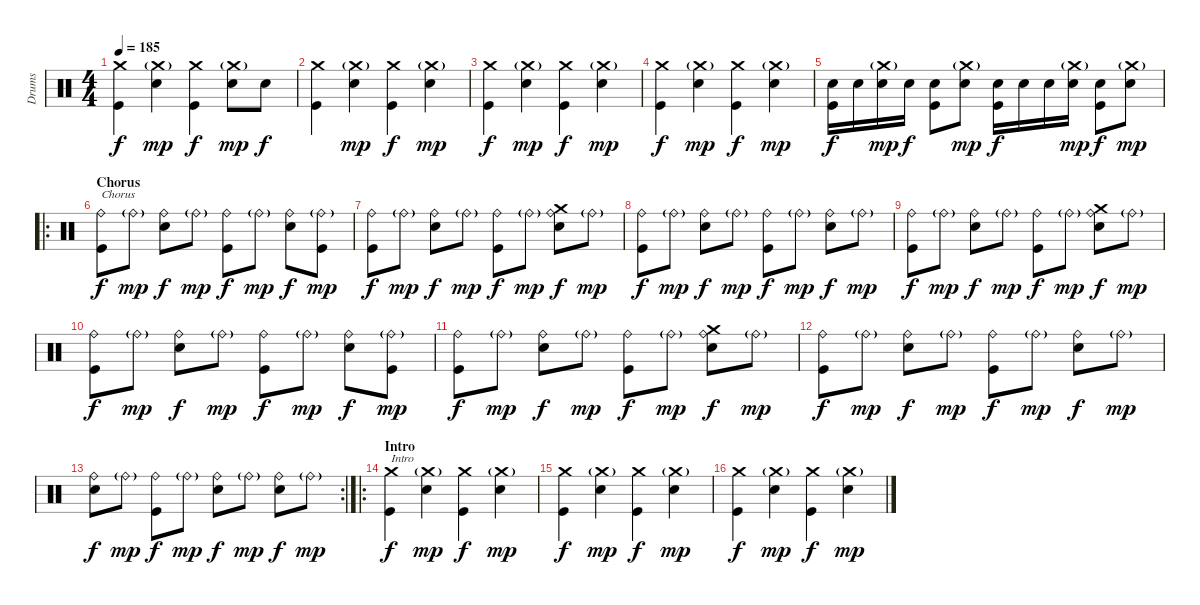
\track ("Drums" "Drums") {instrument percussion}
\staff {score}
\articulation defaults
\ts (4 4)
\tempo 185
\clef neutral
\ks c
("Crash medium (hit)" "Kick (hit)").4{dy f} ("Crash medium (hit)"{g} "Snare (hit) 2").4{dy mp} ("Crash medium (hit)" "Kick (hit)").4{dy f} ("Crash medium (hit)"{g} "Electric Snare (hit)").8{dy mp} "Snare (hit) 2".8{dy f} |
("Crash medium (hit)" "Kick (hit)").4 ("Crash medium (hit)"{g} "Snare (hit) 2").4{dy mp} ("Crash medium (hit)" "Kick (hit)").4{dy f} ("Crash medium (hit)"{g} "Snare (hit) 2").4{dy mp} |
("Crash medium (hit)" "Kick (hit)").4{dy f} ("Crash medium (hit)"{g} "Snare (hit) 2").4{dy mp} ("Crash medium (hit)" "Kick (hit)").4{dy f} ("Crash medium (hit)"{g} "Snare (hit) 2").4{dy mp} |
("Crash medium (hit)" "Kick (hit)").4{dy f} ("Crash medium (hit)"{g} "Snare (hit) 2").4{dy mp} ("Crash medium (hit)" "Kick (hit)").4{dy f} ("Crash medium (hit)"{g} "Snare (hit) 2").4{dy mp} |
("Snare (hit) 2" "Kick (hit)").16{dy f} "Snare (hit) 2".16 ("Crash medium (hit)"{g} "Snare (hit) 2").16{dy mp} "Snare (hit) 2".16{dy f} ("Snare (hit) 2" "Kick (hit)").8 ("Crash medium (hit)"{g} "Snare (hit) 2").8{dy mp} ("Snare (hit) 2" "Kick (hit)").16{dy f} "Snare (hit) 2".16 "Snare (hit) 2".16 ("Crash medium (hit)"{g} "Snare (hit) 2").16{dy mp} ("Snare (hit) 2" "Kick (hit)").8{dy f} ("Crash medium (hit)"{g} "Snare (hit) 2").8{dy mp} |
\ro
\section ("" "Chorus")
("Ride (bell)" "Kick (hit)").8{txt "Chorus" dy f} "Ride (bell)"{g}.8{dy mp} ("Ride (bell)" "Snare (hit) 2").8{dy f} "Ride (bell)"{g}.8{dy mp} ("Ride (bell)" "Kick (hit)").8{dy f} "Ride (bell)"{g}.8{dy mp} ("Ride (bell)" "Snare (hit) 2").8{dy f} ("Ride (bell)"{g} "Kick (hit)").8{dy mp} |
("Ride (bell)" "Kick (hit)").8{dy f} "Ride (bell)"{g}.8{dy mp} ("Ride (bell)" "Snare (hit) 2").8{dy f} "Ride (bell)"{g}.8{dy mp} ("Ride (bell)" "Kick (hit)").8{dy f} "Ride (bell)"{g}.8{dy mp} ("Crash medium (hit)" "Ride (bell)" "Snare (hit) 2").8{dy f} "Ride (bell)"{g}.8{dy mp} |
("Ride (bell)" "Kick (hit)").8{dy f} "Ride (bell)"{g}.8{dy mp} ("Ride (bell)" "Snare (hit) 2").8{dy f} "Ride (bell)"{g}.8{dy mp} ("Ride (bell)" "Kick (hit)").8{dy f} "Ride (bell)"{g}.8{dy mp} ("Ride (bell)" "Snare (hit) 2").8{dy f} "Ride (bell)"{g}.8{dy mp} |
("Ride (bell)" "Kick (hit)").8{dy f} "Ride (bell)"{g}.8{dy mp} ("Ride (bell)" "Snare (hit) 2").8{dy f} "Ride (bell)"{g}.8{dy mp} ("Ride (bell)" "Kick (hit)").8{dy f} "Ride (bell)"{g}.8{dy mp} ("Crash medium (hit)" "Ride (bell)" "Snare (hit) 2").8{dy f} "Ride (bell)"{g}.8{dy mp} |
("Ride (bell)" "Kick (hit)").8{dy f} "Ride (bell)"{g}.8{dy mp} ("Ride (bell)" "Snare (hit) 2").8{dy f} "Ride (bell)"{g}.8{dy mp} ("Ride (bell)" "Kick (hit)").8{dy f} "Ride (bell)"{g}.8{dy mp} ("Ride (bell)" "Snare (hit) 2").8{dy f} ("Ride (bell)"{g} "Kick (hit)").8{dy mp} |
("Ride (bell)" "Kick (hit)").8{dy f} "Ride (bell)"{g}.8{dy mp} ("Ride (bell)" "Snare (hit) 2").8{dy f} "Ride (bell)"{g}.8{dy mp} ("Ride (bell)" "Kick (hit)").8{dy f} "Ride (bell)"{g}.8{dy mp} ("Crash medium (hit)" "Ride (bell)" "Snare (hit) 2").8{dy f} "Ride (bell)"{g}.8{dy mp} |
("Ride (bell)" "Kick (hit)").8{dy f} "Ride (bell)"{g}.8{dy mp} ("Ride (bell)" "Snare (hit) 2").8{dy f} "Ride (bell)"{g}.8{dy mp} ("Ride (bell)" "Kick (hit)").8{dy f} "Ride (bell)"{g}.8{dy mp} ("Ride (bell)" "Snare (hit) 2").8{dy f} "Ride (bell)"{g}.8{dy mp} |
\rc 2
("Ride (bell)" "Snare (hit) 2").8{dy f} "Ride (bell)"{g}.8{dy mp} ("Ride (bell)" "Kick (hit)").8{dy f} "Ride (bell)"{g}.8{dy mp} ("Ride (bell)" "Snare (hit) 2").8{dy f} "Ride (bell)"{g}.8{dy mp} ("Ride (bell)" "Snare (hit) 2").8{dy f} "Ride (bell)"{g}.8{dy mp} |
\ro
\section ("" "Intro")
("Crash medium (hit)" "Kick (hit)").4{txt "Intro" dy f} ("Crash medium (hit)"{g} "Snare (hit) 2").4{dy mp} ("Crash medium (hit)" "Kick (hit)").4{dy f} ("Crash medium (hit)"{g} "Snare (hit) 2").4{dy mp} |
("Crash medium (hit)" "Kick (hit)").4{dy f} ("Crash medium (hit)"{g} "Snare (hit) 2").4{dy mp} ("Crash medium (hit)" "Kick (hit)").4{dy f} ("Crash medium (hit)"{g} "Snare (hit) 2").4{dy mp} |
("Crash medium (hit)" "Kick (hit)").4{dy f} ("Crash medium (hit)"{g} "Snare (hit) 2").4{dy mp} ("Crash medium (hit)" "Kick (hit)").4{dy f} ("Crash medium (hit)"{g} "Snare (hit) 2").4{dy mp}
